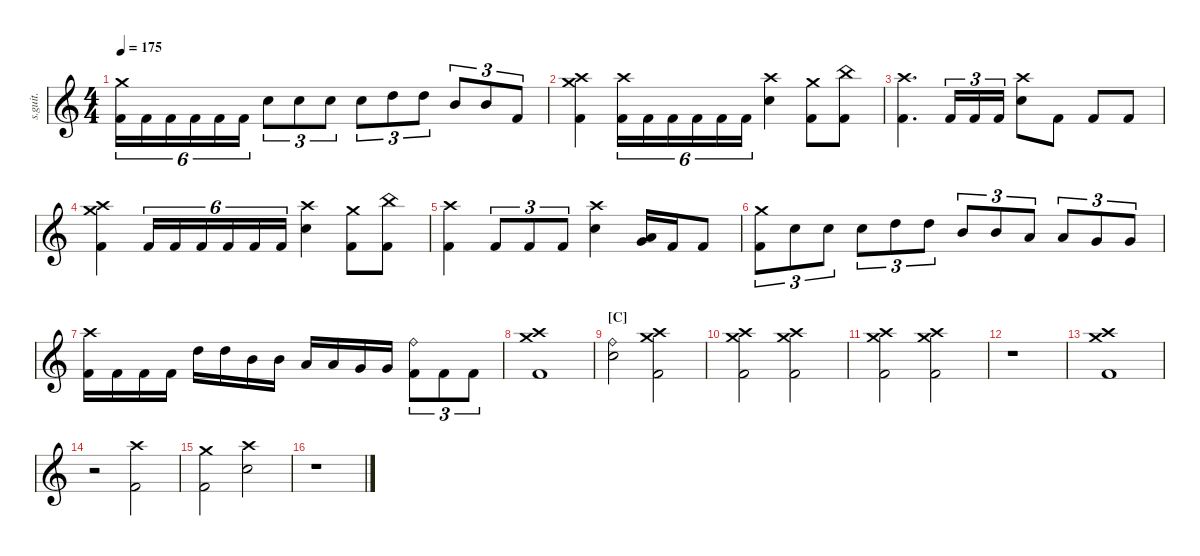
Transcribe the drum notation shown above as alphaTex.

\defaultSystemsLayout 4
\hideDynamics
\bracketExtendMode nobrackets
\track ("" "s.guit.") {instrument percussion}
\staff {score}
\articulation defaults
\ts (4 4)
\tempo 175
\clef g2
\ks c
("Crash medium (hit)" "Kick (hit) 2").16{tu (6 4) dy ff} "Kick (hit) 2".16{tu (6 4)} "Kick (hit) 2".16{tu (6 4)} "Kick (hit) 2".16{tu (6 4)} "Kick (hit) 2".16{tu (6 4)} "Kick (hit) 2".16{tu (6 4)} "Snare (hit) 2".8{tu (3 2)} "Snare (hit) 2".8{tu (3 2)} "Snare (hit) 2".8{tu (3 2)} "Snare (hit) 2".8{tu (3 2)} "High Tom (hit)".8{tu (3 2)} "High Tom (hit)".8{tu (3 2)} "Mid Tom (hit)".8{tu (3 2)} "Mid Tom (hit)".8{tu (3 2)} "Kick (hit) 2".8{tu (3 2)} |
("Crash medium (hit)" "Crash high (hit)" "Kick (hit) 2").4 ("Crash high (hit)" "Kick (hit) 2").16{tu (6 4)} "Kick (hit) 2".16{tu (6 4)} "Kick (hit) 2".16{tu (6 4)} "Kick (hit) 2".16{tu (6 4)} "Kick (hit) 2".16{tu (6 4)} "Kick (hit) 2".16{tu (6 4)} ("Crash high (hit)" "Snare (hit) 2").4 ("Crash medium (hit)" "Kick (hit) 2").8 ("China (hit)" "Kick (hit) 2").8 |
("Crash high (hit)" "Kick (hit) 2").4{d} "Kick (hit) 2".16{tu (3 2)} "Kick (hit) 2".16{tu (3 2)} "Kick (hit) 2".16{tu (3 2)} ("Crash high (hit)" "Snare (hit) 2").8 "Kick (hit) 2".8 "Kick (hit) 2".8 "Kick (hit) 2".8 |
("Crash medium (hit)" "Crash high (hit)" "Kick (hit) 2").4 "Kick (hit) 2".16{tu (6 4)} "Kick (hit) 2".16{tu (6 4)} "Kick (hit) 2".16{tu (6 4)} "Kick (hit) 2".16{tu (6 4)} "Kick (hit) 2".16{tu (6 4)} "Kick (hit) 2".16{tu (6 4)} ("Crash high (hit)" "Snare (hit) 2").4 ("Crash medium (hit)" "Kick (hit) 2").8 ("China (hit)" "Kick (hit) 2").8 |
("Crash high (hit)" "Kick (hit) 2").4 "Kick (hit) 2".8{tu (3 2)} "Kick (hit) 2".8{tu (3 2)} "Kick (hit) 2".8{tu (3 2)} ("Crash high (hit)" "Snare (hit) 2").4 ("Low Tom (hit)" "Very Low Tom (hit)").16 "Kick (hit) 2".16 "Kick (hit) 2".8 |
("Crash medium (hit)" "Kick (hit) 2").8{tu (3 2)} "Snare (hit) 2".8{tu (3 2)} "Snare (hit) 2".8{tu (3 2)} "Snare (hit) 2".8{tu (3 2)} "High Tom (hit)".8{tu (3 2)} "High Tom (hit)".8{tu (3 2)} "Mid Tom (hit)".8{tu (3 2)} "Mid Tom (hit)".8{tu (3 2)} "Low Tom (hit)".8{tu (3 2)} "Low Tom (hit)".8{tu (3 2)} "Very Low Tom (hit)".8{tu (3 2)} "Very Low Tom (hit)".8{tu (3 2)} |
("Crash high (hit)" "Kick (hit) 2").16 "Kick (hit) 2".16 "Kick (hit) 2".16 "Kick (hit) 2".16 "High Tom (hit)".16 "High Tom (hit)".16 "Mid Tom (hit)".16 "Mid Tom (hit)".16 "Low Tom (hit)".16 "Low Tom (hit)".16 "Very Low Tom (hit)".16 "Very Low Tom (hit)".16 ("Ride (bell)" "Kick (hit) 2").8{tu (3 2)} "Kick (hit) 2".8{tu (3 2)} "Kick (hit) 2".8{tu (3 2)} |
("Crash medium (hit)" "Crash high (hit)" "Kick (hit) 2").1 |
\section ("C" "")
("Ride (bell)" "Snare (hit) 2").2 ("Crash medium (hit)" "Crash high (hit)" "Kick (hit) 2").2 |
("Crash medium (hit)" "Crash high (hit)" "Kick (hit) 2").2 ("Crash medium (hit)" "Crash high (hit)" "Kick (hit) 2").2 |
("Crash medium (hit)" "Crash high (hit)" "Kick (hit) 2").2 ("Crash medium (hit)" "Crash high (hit)" "Kick (hit) 2").2 |
r.1 |
("Crash medium (hit)" "Crash high (hit)" "Kick (hit) 2").1 |
r.2 ("Crash high (hit)" "Kick (hit) 2").2 |
("Crash medium (hit)" "Kick (hit) 2").2 ("Crash high (hit)" "Snare (hit) 2").2 |
r.1
